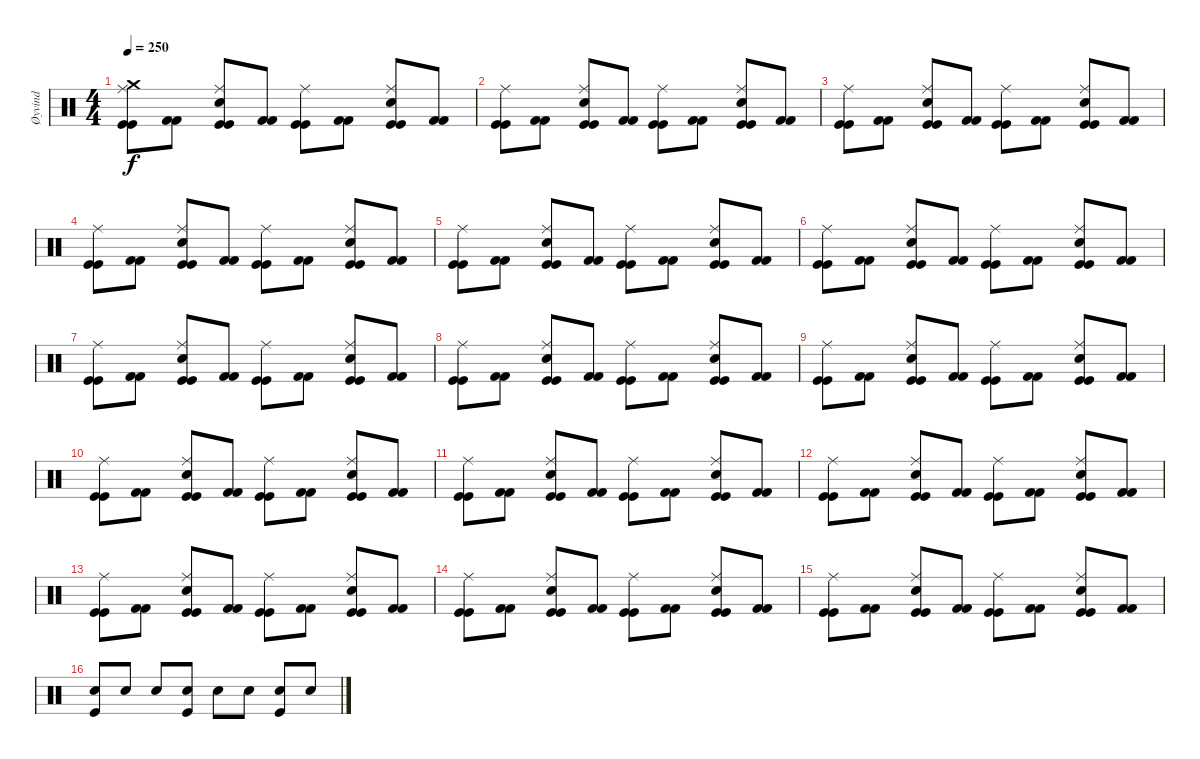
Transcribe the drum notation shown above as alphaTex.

\track ("Øyvind" "Øyvind") {instrument percussion}
\staff {score}
\articulation defaults
\ts (4 4)
\tempo 250
\clef neutral
\ks c
("Kick (hit)" "Crash medium (hit)" "Ride (middle)" "Kick (hit)").8{dy f} ("Kick (hit) 2" "Kick (hit) 2").8 ("Kick (hit)" "Snare (hit) 2" "Ride (middle)" "Kick (hit)").8 ("Kick (hit) 2" "Kick (hit) 2").8 ("Kick (hit)" "Ride (middle)" "Kick (hit)").8 ("Kick (hit) 2" "Kick (hit) 2").8 ("Kick (hit)" "Snare (hit) 2" "Ride (middle)" "Kick (hit)").8 ("Kick (hit) 2" "Kick (hit) 2").8 |
("Kick (hit)" "Ride (middle)" "Kick (hit)").8 ("Kick (hit) 2" "Kick (hit) 2").8 ("Kick (hit)" "Snare (hit) 2" "Ride (middle)" "Kick (hit)").8 ("Kick (hit) 2" "Kick (hit) 2").8 ("Kick (hit)" "Ride (middle)" "Kick (hit)").8 ("Kick (hit) 2" "Kick (hit) 2").8 ("Kick (hit)" "Snare (hit) 2" "Ride (middle)" "Kick (hit)").8 ("Kick (hit) 2" "Kick (hit) 2").8 |
("Kick (hit)" "Ride (middle)" "Kick (hit)").8 ("Kick (hit) 2" "Kick (hit) 2").8 ("Kick (hit)" "Snare (hit) 2" "Ride (middle)" "Kick (hit)").8 ("Kick (hit) 2" "Kick (hit) 2").8 ("Kick (hit)" "Ride (middle)" "Kick (hit)").8 ("Kick (hit) 2" "Kick (hit) 2").8 ("Kick (hit)" "Snare (hit) 2" "Ride (middle)" "Kick (hit)").8 ("Kick (hit) 2" "Kick (hit) 2").8 |
("Kick (hit)" "Ride (middle)" "Kick (hit)").8 ("Kick (hit) 2" "Kick (hit) 2").8 ("Kick (hit)" "Snare (hit) 2" "Ride (middle)" "Kick (hit)").8 ("Kick (hit) 2" "Kick (hit) 2").8 ("Kick (hit)" "Ride (middle)" "Kick (hit)").8 ("Kick (hit) 2" "Kick (hit) 2").8 ("Kick (hit)" "Snare (hit) 2" "Ride (middle)" "Kick (hit)").8 ("Kick (hit) 2" "Kick (hit) 2").8 |
("Kick (hit)" "Ride (middle)" "Kick (hit)").8 ("Kick (hit) 2" "Kick (hit) 2").8 ("Kick (hit)" "Snare (hit) 2" "Ride (middle)" "Kick (hit)").8 ("Kick (hit) 2" "Kick (hit) 2").8 ("Kick (hit)" "Ride (middle)" "Kick (hit)").8 ("Kick (hit) 2" "Kick (hit) 2").8 ("Kick (hit)" "Snare (hit) 2" "Ride (middle)" "Kick (hit)").8 ("Kick (hit) 2" "Kick (hit) 2").8 |
("Kick (hit)" "Ride (middle)" "Kick (hit)").8 ("Kick (hit) 2" "Kick (hit) 2").8 ("Kick (hit)" "Snare (hit) 2" "Ride (middle)" "Kick (hit)").8 ("Kick (hit) 2" "Kick (hit) 2").8 ("Kick (hit)" "Ride (middle)" "Kick (hit)").8 ("Kick (hit) 2" "Kick (hit) 2").8 ("Kick (hit)" "Snare (hit) 2" "Ride (middle)" "Kick (hit)").8 ("Kick (hit) 2" "Kick (hit) 2").8 |
("Kick (hit)" "Ride (middle)" "Kick (hit)").8 ("Kick (hit) 2" "Kick (hit) 2").8 ("Kick (hit)" "Snare (hit) 2" "Ride (middle)" "Kick (hit)").8 ("Kick (hit) 2" "Kick (hit) 2").8 ("Kick (hit)" "Ride (middle)" "Kick (hit)").8 ("Kick (hit) 2" "Kick (hit) 2").8 ("Kick (hit)" "Snare (hit) 2" "Ride (middle)" "Kick (hit)").8 ("Kick (hit) 2" "Kick (hit) 2").8 |
("Kick (hit)" "Ride (middle)" "Kick (hit)").8 ("Kick (hit) 2" "Kick (hit) 2").8 ("Kick (hit)" "Snare (hit) 2" "Ride (middle)" "Kick (hit)").8 ("Kick (hit) 2" "Kick (hit) 2").8 ("Kick (hit)" "Ride (middle)" "Kick (hit)").8 ("Kick (hit) 2" "Kick (hit) 2").8 ("Kick (hit)" "Snare (hit) 2" "Ride (middle)" "Kick (hit)").8 ("Kick (hit) 2" "Kick (hit) 2").8 |
("Kick (hit)" "Ride (middle)" "Kick (hit)").8 ("Kick (hit) 2" "Kick (hit) 2").8 ("Kick (hit)" "Snare (hit) 2" "Ride (middle)" "Kick (hit)").8 ("Kick (hit) 2" "Kick (hit) 2").8 ("Kick (hit)" "Ride (middle)" "Kick (hit)").8 ("Kick (hit) 2" "Kick (hit) 2").8 ("Kick (hit)" "Snare (hit) 2" "Ride (middle)" "Kick (hit)").8 ("Kick (hit) 2" "Kick (hit) 2").8 |
("Kick (hit)" "Ride (middle)" "Kick (hit)").8 ("Kick (hit) 2" "Kick (hit) 2").8 ("Kick (hit)" "Snare (hit) 2" "Ride (middle)" "Kick (hit)").8 ("Kick (hit) 2" "Kick (hit) 2").8 ("Kick (hit)" "Ride (middle)" "Kick (hit)").8 ("Kick (hit) 2" "Kick (hit) 2").8 ("Kick (hit)" "Snare (hit) 2" "Ride (middle)" "Kick (hit)").8 ("Kick (hit) 2" "Kick (hit) 2").8 |
("Kick (hit)" "Ride (middle)" "Kick (hit)").8 ("Kick (hit) 2" "Kick (hit) 2").8 ("Kick (hit)" "Snare (hit) 2" "Ride (middle)" "Kick (hit)").8 ("Kick (hit) 2" "Kick (hit) 2").8 ("Kick (hit)" "Ride (middle)" "Kick (hit)").8 ("Kick (hit) 2" "Kick (hit) 2").8 ("Kick (hit)" "Snare (hit) 2" "Ride (middle)" "Kick (hit)").8 ("Kick (hit) 2" "Kick (hit) 2").8 |
("Kick (hit)" "Ride (middle)" "Kick (hit)").8 ("Kick (hit) 2" "Kick (hit) 2").8 ("Kick (hit)" "Snare (hit) 2" "Ride (middle)" "Kick (hit)").8 ("Kick (hit) 2" "Kick (hit) 2").8 ("Kick (hit)" "Ride (middle)" "Kick (hit)").8 ("Kick (hit) 2" "Kick (hit) 2").8 ("Kick (hit)" "Snare (hit) 2" "Ride (middle)" "Kick (hit)").8 ("Kick (hit) 2" "Kick (hit) 2").8 |
("Kick (hit)" "Ride (middle)" "Kick (hit)").8 ("Kick (hit) 2" "Kick (hit) 2").8 ("Kick (hit)" "Snare (hit) 2" "Ride (middle)" "Kick (hit)").8 ("Kick (hit) 2" "Kick (hit) 2").8 ("Kick (hit)" "Ride (middle)" "Kick (hit)").8 ("Kick (hit) 2" "Kick (hit) 2").8 ("Kick (hit)" "Snare (hit) 2" "Ride (middle)" "Kick (hit)").8 ("Kick (hit) 2" "Kick (hit) 2").8 |
("Kick (hit)" "Ride (middle)" "Kick (hit)").8 ("Kick (hit) 2" "Kick (hit) 2").8 ("Kick (hit)" "Snare (hit) 2" "Ride (middle)" "Kick (hit)").8 ("Kick (hit) 2" "Kick (hit) 2").8 ("Kick (hit)" "Ride (middle)" "Kick (hit)").8 ("Kick (hit) 2" "Kick (hit) 2").8 ("Kick (hit)" "Snare (hit) 2" "Ride (middle)" "Kick (hit)").8 ("Kick (hit) 2" "Kick (hit) 2").8 |
("Kick (hit)" "Ride (middle)" "Kick (hit)").8 ("Kick (hit) 2" "Kick (hit) 2").8 ("Kick (hit)" "Snare (hit) 2" "Ride (middle)" "Kick (hit)").8 ("Kick (hit) 2" "Kick (hit) 2").8 ("Kick (hit)" "Ride (middle)" "Kick (hit)").8 ("Kick (hit) 2" "Kick (hit) 2").8 ("Kick (hit)" "Snare (hit) 2" "Ride (middle)" "Kick (hit)").8 ("Kick (hit) 2" "Kick (hit) 2").8 |
("Kick (hit)" "Snare (hit) 2").8 "Snare (hit) 2".8 "Snare (hit) 2".8 ("Kick (hit)" "Snare (hit) 2").8 "Snare (hit) 2".8 "Snare (hit) 2".8 ("Kick (hit)" "Snare (hit) 2").8 "Snare (hit) 2".8
